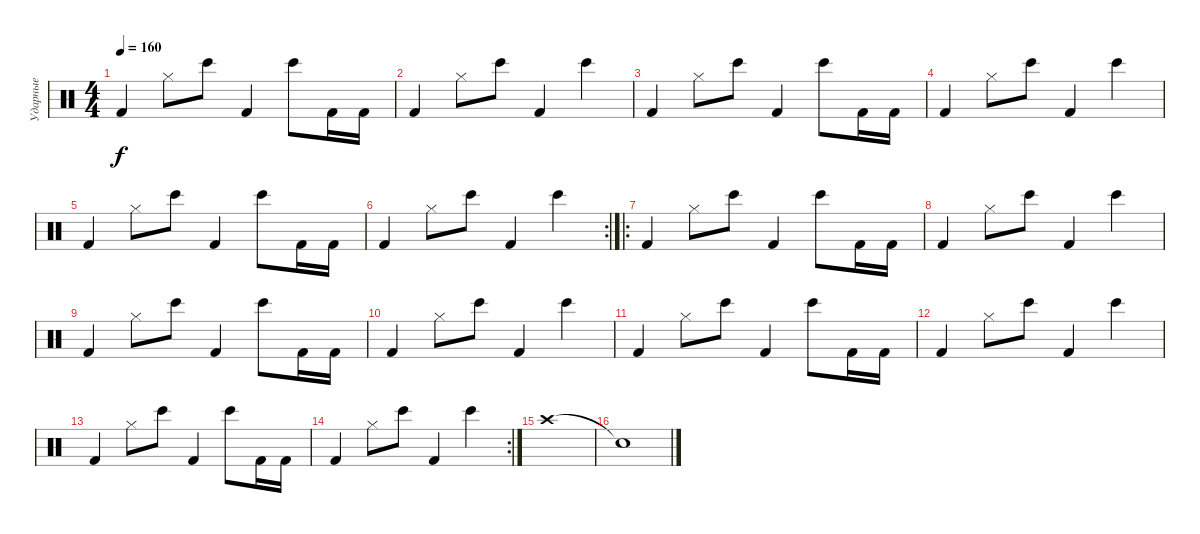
\track ("Ударные" "Ударные") {instrument percussion}
\staff {score}
\articulation defaults
\ts (4 4)
\tempo 160
\clef neutral
\ks c "Kick (hit) 2".4{dy f} "Hi-Hat (closed)".8 "Bongo High (hit)".8 "Kick (hit) 2".4 "Bongo High (hit)".8 "Kick (hit) 2".16 "Kick (hit) 2".16
|
"Kick (hit) 2".4 "Hi-Hat (closed)".8 "Bongo High (hit)".8 "Kick (hit) 2".4 "Bongo High (hit)".4 |
"Kick (hit) 2".4 "Hi-Hat (closed)".8 "Bongo High (hit)".8 "Kick (hit) 2".4 "Bongo High (hit)".8 "Kick (hit) 2".16 "Kick (hit) 2".16 |
"Kick (hit) 2".4 "Hi-Hat (closed)".8 "Bongo High (hit)".8 "Kick (hit) 2".4 "Bongo High (hit)".4 |
"Kick (hit) 2".4 "Hi-Hat (closed)".8 "Bongo High (hit)".8 "Kick (hit) 2".4 "Bongo High (hit)".8 "Kick (hit) 2".16 "Kick (hit) 2".16 |
\rc 2 "Kick (hit) 2".4 "Hi-Hat (closed)".8 "Bongo High (hit)".8 "Kick (hit) 2".4 "Bongo High (hit)".4
|
\ro "Kick (hit) 2".4 "Hi-Hat (closed)".8 "Bongo High (hit)".8 "Kick (hit) 2".4 "Bongo High (hit)".8 "Kick (hit) 2".16 "Kick (hit) 2".16
|
"Kick (hit) 2".4 "Hi-Hat (closed)".8 "Bongo High (hit)".8 "Kick (hit) 2".4 "Bongo High (hit)".4 |
"Kick (hit) 2".4 "Hi-Hat (closed)".8 "Bongo High (hit)".8 "Kick (hit) 2".4 "Bongo High (hit)".8 "Kick (hit) 2".16 "Kick (hit) 2".16 |
"Kick (hit) 2".4 "Hi-Hat (closed)".8 "Bongo High (hit)".8 "Kick (hit) 2".4 "Bongo High (hit)".4 |
"Kick (hit) 2".4 "Hi-Hat (closed)".8 "Bongo High (hit)".8 "Kick (hit) 2".4 "Bongo High (hit)".8 "Kick (hit) 2".16 "Kick (hit) 2".16 |
"Kick (hit) 2".4 "Hi-Hat (closed)".8 "Bongo High (hit)".8 "Kick (hit) 2".4 "Bongo High (hit)".4 |
"Kick (hit) 2".4 "Hi-Hat (closed)".8 "Bongo High (hit)".8 "Kick (hit) 2".4 "Bongo High (hit)".8 "Kick (hit) 2".16 "Kick (hit) 2".16 |
\rc 2 "Kick (hit) 2".4 "Hi-Hat (closed)".8 "Bongo High (hit)".8 "Kick (hit) 2".4 "Bongo High (hit)".4
|
"Crash high (hit)".1 |
"Snare (hit)"{t}.1
